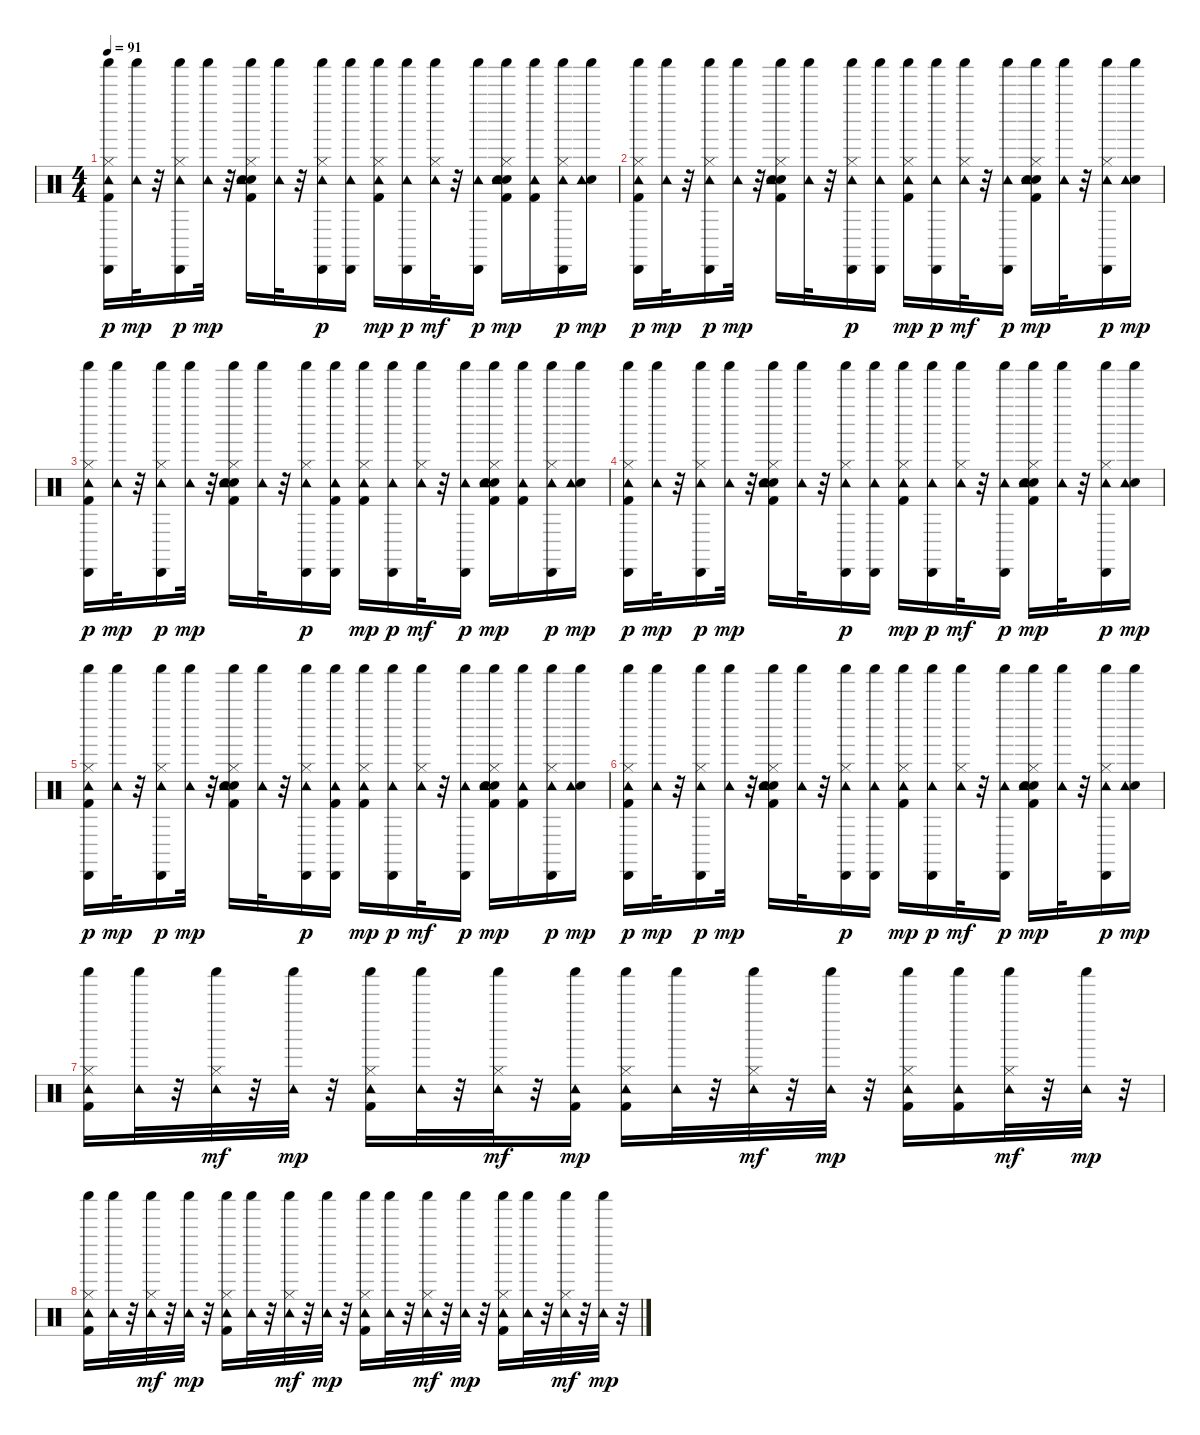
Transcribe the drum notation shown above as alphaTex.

\track "" {instrument percussion}
\staff {score}
\articulation defaults
\ts (4 4)
\tempo 91
\clef neutral
\ks c
("Kick (hit) 2" "Hi-Hat (closed)" "Tambourine (hit)" "Shaker (hit)" "Cabasa (hit)").16{dy p} ("Tambourine (hit)" "Shaker (hit)").32{dy mp} r.32 ("Hi-Hat (closed)" "Tambourine (hit)" "Shaker (hit)" "Cabasa (hit)").16{dy p} ("Tambourine (hit)" "Shaker (hit)").32{dy mp} r.32 ("Kick (hit) 2" "Electric Snare (hit)" "Hi-Hat (closed)" "Hand Clap (hit)" "Tambourine (hit)" "Shaker (hit)").16 ("Tambourine (hit)" "Shaker (hit)").32 r.32 ("Hi-Hat (closed)" "Tambourine (hit)" "Shaker (hit)" "Cabasa (hit)").16{dy p} ("Tambourine (hit)" "Shaker (hit)" "Cabasa (hit)").16 ("Kick (hit) 2" "Hi-Hat (closed)" "Tambourine (hit)" "Shaker (hit)").16{dy mp} ("Tambourine (hit)" "Shaker (hit)" "Cabasa (hit)").16{dy p} ("Hi-Hat (closed)" "Tambourine (hit)" "Shaker (hit)").32{dy mf} r.32 ("Tambourine (hit)" "Shaker (hit)" "Cabasa (hit)").16{dy p} ("Kick (hit) 2" "Electric Snare (hit)" "Hi-Hat (closed)" "Hand Clap (hit)" "Tambourine (hit)" "Shaker (hit)").16{dy mp} ("Kick (hit) 2" "Tambourine (hit)" "Shaker (hit)").16 ("Hi-Hat (closed)" "Tambourine (hit)" "Shaker (hit)" "Cabasa (hit)").16{dy p} ("Electric Snare (hit)" "Tambourine (hit)" "Shaker (hit)").16{dy mp} |
("Kick (hit) 2" "Hi-Hat (closed)" "Tambourine (hit)" "Shaker (hit)" "Cabasa (hit)").16{dy p} ("Tambourine (hit)" "Shaker (hit)").32{dy mp} r.32 ("Hi-Hat (closed)" "Tambourine (hit)" "Shaker (hit)" "Cabasa (hit)").16{dy p} ("Tambourine (hit)" "Shaker (hit)").32{dy mp} r.32 ("Kick (hit) 2" "Electric Snare (hit)" "Hi-Hat (closed)" "Hand Clap (hit)" "Tambourine (hit)" "Shaker (hit)").16 ("Tambourine (hit)" "Shaker (hit)").32 r.32 ("Hi-Hat (closed)" "Tambourine (hit)" "Shaker (hit)" "Cabasa (hit)").16{dy p} ("Tambourine (hit)" "Shaker (hit)" "Cabasa (hit)").16 ("Kick (hit) 2" "Hi-Hat (closed)" "Tambourine (hit)" "Shaker (hit)").16{dy mp} ("Tambourine (hit)" "Shaker (hit)" "Cabasa (hit)").16{dy p} ("Hi-Hat (closed)" "Tambourine (hit)" "Shaker (hit)").32{dy mf} r.32 ("Tambourine (hit)" "Shaker (hit)" "Cabasa (hit)").16{dy p} ("Kick (hit) 2" "Electric Snare (hit)" "Hi-Hat (closed)" "Hand Clap (hit)" "Tambourine (hit)" "Shaker (hit)").16{dy mp} ("Tambourine (hit)" "Shaker (hit)").32 r.32 ("Hi-Hat (closed)" "Tambourine (hit)" "Shaker (hit)" "Cabasa (hit)").16{dy p} ("Electric Snare (hit)" "Tambourine (hit)" "Shaker (hit)").16{dy mp} |
("Kick (hit) 2" "Hi-Hat (closed)" "Tambourine (hit)" "Shaker (hit)" "Cabasa (hit)").16{dy p} ("Tambourine (hit)" "Shaker (hit)").32{dy mp} r.32 ("Hi-Hat (closed)" "Tambourine (hit)" "Shaker (hit)" "Cabasa (hit)").16{dy p} ("Tambourine (hit)" "Shaker (hit)").32{dy mp} r.32 ("Kick (hit) 2" "Electric Snare (hit)" "Hi-Hat (closed)" "Hand Clap (hit)" "Tambourine (hit)" "Shaker (hit)").16 ("Tambourine (hit)" "Shaker (hit)").32 r.32 ("Hi-Hat (closed)" "Tambourine (hit)" "Shaker (hit)" "Cabasa (hit)").16{dy p} ("Kick (hit) 2" "Tambourine (hit)" "Shaker (hit)" "Cabasa (hit)").16 ("Kick (hit) 2" "Hi-Hat (closed)" "Tambourine (hit)" "Shaker (hit)").16{dy mp} ("Tambourine (hit)" "Shaker (hit)" "Cabasa (hit)").16{dy p} ("Hi-Hat (closed)" "Tambourine (hit)" "Shaker (hit)").32{dy mf} r.32 ("Tambourine (hit)" "Shaker (hit)" "Cabasa (hit)").16{dy p} ("Kick (hit) 2" "Electric Snare (hit)" "Hi-Hat (closed)" "Hand Clap (hit)" "Tambourine (hit)" "Shaker (hit)").16{dy mp} ("Kick (hit) 2" "Tambourine (hit)" "Shaker (hit)").16 ("Hi-Hat (closed)" "Tambourine (hit)" "Shaker (hit)" "Cabasa (hit)").16{dy p} ("Electric Snare (hit)" "Tambourine (hit)" "Shaker (hit)").16{dy mp} |
("Kick (hit) 2" "Hi-Hat (closed)" "Tambourine (hit)" "Shaker (hit)" "Cabasa (hit)").16{dy p} ("Tambourine (hit)" "Shaker (hit)").32{dy mp} r.32 ("Hi-Hat (closed)" "Tambourine (hit)" "Shaker (hit)" "Cabasa (hit)").16{dy p} ("Tambourine (hit)" "Shaker (hit)").32{dy mp} r.32 ("Kick (hit) 2" "Electric Snare (hit)" "Hi-Hat (closed)" "Hand Clap (hit)" "Tambourine (hit)" "Shaker (hit)").16 ("Tambourine (hit)" "Shaker (hit)").32 r.32 ("Hi-Hat (closed)" "Tambourine (hit)" "Shaker (hit)" "Cabasa (hit)").16{dy p} ("Tambourine (hit)" "Shaker (hit)" "Cabasa (hit)").16 ("Kick (hit) 2" "Hi-Hat (closed)" "Tambourine (hit)" "Shaker (hit)").16{dy mp} ("Tambourine (hit)" "Shaker (hit)" "Cabasa (hit)").16{dy p} ("Hi-Hat (closed)" "Tambourine (hit)" "Shaker (hit)").32{dy mf} r.32 ("Tambourine (hit)" "Shaker (hit)" "Cabasa (hit)").16{dy p} ("Kick (hit) 2" "Electric Snare (hit)" "Hi-Hat (closed)" "Hand Clap (hit)" "Tambourine (hit)" "Shaker (hit)").16{dy mp} ("Tambourine (hit)" "Shaker (hit)").32 r.32 ("Hi-Hat (closed)" "Tambourine (hit)" "Shaker (hit)" "Cabasa (hit)").16{dy p} ("Electric Snare (hit)" "Tambourine (hit)" "Shaker (hit)").16{dy mp} |
("Kick (hit) 2" "Hi-Hat (closed)" "Tambourine (hit)" "Shaker (hit)" "Cabasa (hit)").16{dy p} ("Tambourine (hit)" "Shaker (hit)").32{dy mp} r.32 ("Hi-Hat (closed)" "Tambourine (hit)" "Shaker (hit)" "Cabasa (hit)").16{dy p} ("Tambourine (hit)" "Shaker (hit)").32{dy mp} r.32 ("Kick (hit) 2" "Electric Snare (hit)" "Hi-Hat (closed)" "Hand Clap (hit)" "Tambourine (hit)" "Shaker (hit)").16 ("Tambourine (hit)" "Shaker (hit)").32 r.32 ("Hi-Hat (closed)" "Tambourine (hit)" "Shaker (hit)" "Cabasa (hit)").16{dy p} ("Kick (hit) 2" "Tambourine (hit)" "Shaker (hit)" "Cabasa (hit)").16 ("Kick (hit) 2" "Hi-Hat (closed)" "Tambourine (hit)" "Shaker (hit)").16{dy mp} ("Tambourine (hit)" "Shaker (hit)" "Cabasa (hit)").16{dy p} ("Hi-Hat (closed)" "Tambourine (hit)" "Shaker (hit)").32{dy mf} r.32 ("Tambourine (hit)" "Shaker (hit)" "Cabasa (hit)").16{dy p} ("Kick (hit) 2" "Electric Snare (hit)" "Hi-Hat (closed)" "Hand Clap (hit)" "Tambourine (hit)" "Shaker (hit)").16{dy mp} ("Kick (hit) 2" "Tambourine (hit)" "Shaker (hit)").16 ("Hi-Hat (closed)" "Tambourine (hit)" "Shaker (hit)" "Cabasa (hit)").16{dy p} ("Electric Snare (hit)" "Tambourine (hit)" "Shaker (hit)").16{dy mp} |
("Kick (hit) 2" "Hi-Hat (closed)" "Tambourine (hit)" "Shaker (hit)" "Cabasa (hit)").16{dy p} ("Tambourine (hit)" "Shaker (hit)").32{dy mp} r.32 ("Hi-Hat (closed)" "Tambourine (hit)" "Shaker (hit)" "Cabasa (hit)").16{dy p} ("Tambourine (hit)" "Shaker (hit)").32{dy mp} r.32 ("Kick (hit) 2" "Electric Snare (hit)" "Hi-Hat (closed)" "Hand Clap (hit)" "Tambourine (hit)" "Shaker (hit)").16 ("Tambourine (hit)" "Shaker (hit)").32 r.32 ("Hi-Hat (closed)" "Tambourine (hit)" "Shaker (hit)" "Cabasa (hit)").16{dy p} ("Tambourine (hit)" "Shaker (hit)" "Cabasa (hit)").16 ("Kick (hit) 2" "Hi-Hat (closed)" "Tambourine (hit)" "Shaker (hit)").16{dy mp} ("Tambourine (hit)" "Shaker (hit)" "Cabasa (hit)").16{dy p} ("Hi-Hat (closed)" "Tambourine (hit)" "Shaker (hit)").32{dy mf} r.32 ("Tambourine (hit)" "Shaker (hit)" "Cabasa (hit)").16{dy p} ("Kick (hit) 2" "Electric Snare (hit)" "Hi-Hat (closed)" "Hand Clap (hit)" "Tambourine (hit)" "Shaker (hit)").16{dy mp} ("Tambourine (hit)" "Shaker (hit)").32 r.32 ("Hi-Hat (closed)" "Tambourine (hit)" "Shaker (hit)" "Cabasa (hit)").16{dy p} ("Electric Snare (hit)" "Tambourine (hit)" "Shaker (hit)").16{dy mp} |
("Kick (hit) 2" "Hi-Hat (closed)" "Tambourine (hit)" "Shaker (hit)").16 ("Tambourine (hit)" "Shaker (hit)").32 r.32 ("Hi-Hat (closed)" "Tambourine (hit)" "Shaker (hit)").32{dy mf} r.32 ("Tambourine (hit)" "Shaker (hit)").32{dy mp} r.32 ("Kick (hit) 2" "Hi-Hat (closed)" "Tambourine (hit)" "Shaker (hit)").16 ("Tambourine (hit)" "Shaker (hit)").32 r.32 ("Hi-Hat (closed)" "Tambourine (hit)" "Shaker (hit)").32{dy mf} r.32 ("Kick (hit) 2" "Tambourine (hit)" "Shaker (hit)").16{dy mp} ("Kick (hit) 2" "Hi-Hat (closed)" "Tambourine (hit)" "Shaker (hit)").16 ("Tambourine (hit)" "Shaker (hit)").32 r.32 ("Hi-Hat (closed)" "Tambourine (hit)" "Shaker (hit)").32{dy mf} r.32 ("Tambourine (hit)" "Shaker (hit)").32{dy mp} r.32 ("Kick (hit) 2" "Hi-Hat (closed)" "Tambourine (hit)" "Shaker (hit)").16 ("Kick (hit) 2" "Tambourine (hit)" "Shaker (hit)").16 ("Hi-Hat (closed)" "Tambourine (hit)" "Shaker (hit)").32{dy mf} r.32 ("Tambourine (hit)" "Shaker (hit)").32{dy mp} r.32 |
("Kick (hit) 2" "Hi-Hat (closed)" "Tambourine (hit)" "Shaker (hit)").16 ("Tambourine (hit)" "Shaker (hit)").32 r.32 ("Hi-Hat (closed)" "Tambourine (hit)" "Shaker (hit)").32{dy mf} r.32 ("Tambourine (hit)" "Shaker (hit)").32{dy mp} r.32 ("Kick (hit) 2" "Hi-Hat (closed)" "Tambourine (hit)" "Shaker (hit)").16 ("Tambourine (hit)" "Shaker (hit)").32 r.32 ("Hi-Hat (closed)" "Tambourine (hit)" "Shaker (hit)").32{dy mf} r.32 ("Tambourine (hit)" "Shaker (hit)").32{dy mp} r.32 ("Kick (hit) 2" "Hi-Hat (closed)" "Tambourine (hit)" "Shaker (hit)").16 ("Tambourine (hit)" "Shaker (hit)").32 r.32 ("Hi-Hat (closed)" "Tambourine (hit)" "Shaker (hit)").32{dy mf} r.32 ("Tambourine (hit)" "Shaker (hit)").32{dy mp} r.32 ("Kick (hit) 2" "Hi-Hat (closed)" "Tambourine (hit)" "Shaker (hit)").16 ("Tambourine (hit)" "Shaker (hit)").32 r.32 ("Hi-Hat (closed)" "Tambourine (hit)" "Shaker (hit)").32{dy mf} r.32 ("Tambourine (hit)" "Shaker (hit)").32{dy mp} r.32
